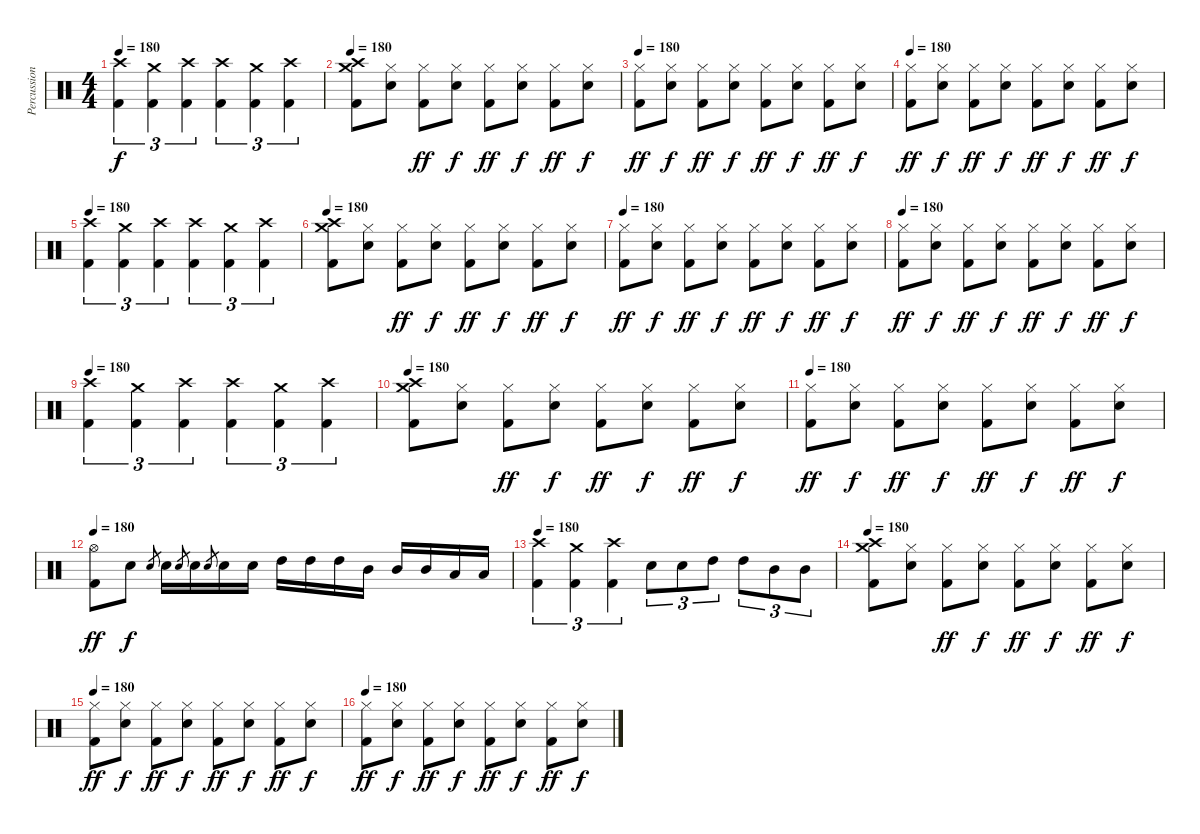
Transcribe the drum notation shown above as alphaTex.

\track ("Percussion" "Percussion") {instrument percussion}
\staff {score}
\articulation defaults
\ts (4 4)
\tempo 180
\clef neutral
\ks c
("Crash high (hit)" "Kick (hit) 2").4{tu (3 2) dy f} ("Crash medium (hit)" "Kick (hit) 2").4{tu (3 2)} ("Crash high (hit)" "Kick (hit) 2").4{tu (3 2)} ("Crash high (hit)" "Kick (hit) 2").4{tu (3 2)} ("Crash medium (hit)" "Kick (hit) 2").4{tu (3 2)} ("Crash high (hit)" "Kick (hit) 2").4{tu (3 2)} |
\tempo 180
("Crash high (hit)" "Crash medium (hit)" "Kick (hit) 2").8 ("Hi-Hat (closed)" "Snare (hit) 2").8 ("Hi-Hat (closed)" "Kick (hit) 2").8{dy ff} ("Hi-Hat (closed)" "Snare (hit) 2").8{dy f} ("Hi-Hat (closed)" "Kick (hit) 2").8{dy ff} ("Hi-Hat (closed)" "Snare (hit) 2").8{dy f} ("Hi-Hat (closed)" "Kick (hit) 2").8{dy ff} ("Hi-Hat (closed)" "Snare (hit) 2").8{dy f} |
\tempo 180
("Hi-Hat (closed)" "Kick (hit) 2").8{dy ff} ("Hi-Hat (closed)" "Snare (hit) 2").8{dy f} ("Hi-Hat (closed)" "Kick (hit) 2").8{dy ff} ("Hi-Hat (closed)" "Snare (hit) 2").8{dy f} ("Hi-Hat (closed)" "Kick (hit) 2").8{dy ff} ("Hi-Hat (closed)" "Snare (hit) 2").8{dy f} ("Hi-Hat (closed)" "Kick (hit) 2").8{dy ff} ("Hi-Hat (closed)" "Snare (hit) 2").8{dy f} |
\tempo 180
("Hi-Hat (closed)" "Kick (hit) 2").8{dy ff} ("Hi-Hat (closed)" "Snare (hit) 2").8{dy f} ("Hi-Hat (closed)" "Kick (hit) 2").8{dy ff} ("Hi-Hat (closed)" "Snare (hit) 2").8{dy f} ("Hi-Hat (closed)" "Kick (hit) 2").8{dy ff} ("Hi-Hat (closed)" "Snare (hit) 2").8{dy f} ("Hi-Hat (closed)" "Kick (hit) 2").8{dy ff} ("Hi-Hat (closed)" "Snare (hit) 2").8{dy f} |
\tempo 180
("Crash high (hit)" "Kick (hit) 2").4{tu (3 2)} ("Crash medium (hit)" "Kick (hit) 2").4{tu (3 2)} ("Crash high (hit)" "Kick (hit) 2").4{tu (3 2)} ("Crash high (hit)" "Kick (hit) 2").4{tu (3 2)} ("Crash medium (hit)" "Kick (hit) 2").4{tu (3 2)} ("Crash high (hit)" "Kick (hit) 2").4{tu (3 2)} |
\tempo 180
("Crash high (hit)" "Crash medium (hit)" "Kick (hit) 2").8 ("Hi-Hat (closed)" "Snare (hit) 2").8 ("Hi-Hat (closed)" "Kick (hit) 2").8{dy ff} ("Hi-Hat (closed)" "Snare (hit) 2").8{dy f} ("Hi-Hat (closed)" "Kick (hit) 2").8{dy ff} ("Hi-Hat (closed)" "Snare (hit) 2").8{dy f} ("Hi-Hat (closed)" "Kick (hit) 2").8{dy ff} ("Hi-Hat (closed)" "Snare (hit) 2").8{dy f} |
\tempo 180
("Hi-Hat (closed)" "Kick (hit) 2").8{dy ff} ("Hi-Hat (closed)" "Snare (hit) 2").8{dy f} ("Hi-Hat (closed)" "Kick (hit) 2").8{dy ff} ("Hi-Hat (closed)" "Snare (hit) 2").8{dy f} ("Hi-Hat (closed)" "Kick (hit) 2").8{dy ff} ("Hi-Hat (closed)" "Snare (hit) 2").8{dy f} ("Hi-Hat (closed)" "Kick (hit) 2").8{dy ff} ("Hi-Hat (closed)" "Snare (hit) 2").8{dy f} |
\tempo 180
("Hi-Hat (closed)" "Kick (hit) 2").8{dy ff} ("Hi-Hat (closed)" "Snare (hit) 2").8{dy f} ("Hi-Hat (closed)" "Kick (hit) 2").8{dy ff} ("Hi-Hat (closed)" "Snare (hit) 2").8{dy f} ("Hi-Hat (closed)" "Kick (hit) 2").8{dy ff} ("Hi-Hat (closed)" "Snare (hit) 2").8{dy f} ("Hi-Hat (closed)" "Kick (hit) 2").8{dy ff} ("Hi-Hat (closed)" "Snare (hit) 2").8{dy f} |
\tempo 180
("Crash high (hit)" "Kick (hit) 2").4{tu (3 2)} ("Crash medium (hit)" "Kick (hit) 2").4{tu (3 2)} ("Crash high (hit)" "Kick (hit) 2").4{tu (3 2)} ("Crash high (hit)" "Kick (hit) 2").4{tu (3 2)} ("Crash medium (hit)" "Kick (hit) 2").4{tu (3 2)} ("Crash high (hit)" "Kick (hit) 2").4{tu (3 2)} |
\tempo 180
("Crash high (hit)" "Crash medium (hit)" "Kick (hit) 2").8 ("Hi-Hat (closed)" "Snare (hit) 2").8 ("Hi-Hat (closed)" "Kick (hit) 2").8{dy ff} ("Hi-Hat (closed)" "Snare (hit) 2").8{dy f} ("Hi-Hat (closed)" "Kick (hit) 2").8{dy ff} ("Hi-Hat (closed)" "Snare (hit) 2").8{dy f} ("Hi-Hat (closed)" "Kick (hit) 2").8{dy ff} ("Hi-Hat (closed)" "Snare (hit) 2").8{dy f} |
\tempo 180
("Hi-Hat (closed)" "Kick (hit) 2").8{dy ff} ("Hi-Hat (closed)" "Snare (hit) 2").8{dy f} ("Hi-Hat (closed)" "Kick (hit) 2").8{dy ff} ("Hi-Hat (closed)" "Snare (hit) 2").8{dy f} ("Hi-Hat (closed)" "Kick (hit) 2").8{dy ff} ("Hi-Hat (closed)" "Snare (hit) 2").8{dy f} ("Hi-Hat (closed)" "Kick (hit) 2").8{dy ff} ("Hi-Hat (closed)" "Snare (hit) 2").8{dy f} |
\tempo 180
("Hi-Hat (open)" "Kick (hit) 2").8{dy ff} "Snare (hit) 2".8{dy f} "Snare (hit) 2".8{gr} "Snare (hit) 2".16 "Snare (hit) 2".8{gr} "Snare (hit) 2".16 "Snare (hit) 2".8{gr} "Snare (hit) 2".16 "Snare (hit) 2".16 "High Tom (hit)".16 "High Tom (hit)".16 "High Tom (hit)".16 "Mid Tom (hit)".16 "Mid Tom (hit)".16 "Mid Tom (hit)".16 "Low Floor Tom (hit)".16 "Low Floor Tom (hit)".16 |
\tempo 180
("Crash high (hit)" "Kick (hit) 2").4{tu (3 2)} ("Crash medium (hit)" "Kick (hit) 2").4{tu (3 2)} ("Crash high (hit)" "Kick (hit) 2").4{tu (3 2)} "Snare (hit) 2".8{tu (3 2)} "Snare (hit) 2".8{tu (3 2)} "High Tom (hit)".8{tu (3 2)} "High Tom (hit)".8{tu (3 2)} "Mid Tom (hit)".8{tu (3 2)} "Mid Tom (hit)".8{tu (3 2)} |
\tempo 180
("Crash high (hit)" "Crash medium (hit)" "Kick (hit) 2").8 ("Hi-Hat (closed)" "Snare (hit) 2").8 ("Hi-Hat (closed)" "Kick (hit) 2").8{dy ff} ("Hi-Hat (closed)" "Snare (hit) 2").8{dy f} ("Hi-Hat (closed)" "Kick (hit) 2").8{dy ff} ("Hi-Hat (closed)" "Snare (hit) 2").8{dy f} ("Hi-Hat (closed)" "Kick (hit) 2").8{dy ff} ("Hi-Hat (closed)" "Snare (hit) 2").8{dy f} |
\tempo 180
("Hi-Hat (closed)" "Kick (hit) 2").8{dy ff} ("Hi-Hat (closed)" "Snare (hit) 2").8{dy f} ("Hi-Hat (closed)" "Kick (hit) 2").8{dy ff} ("Hi-Hat (closed)" "Snare (hit) 2").8{dy f} ("Hi-Hat (closed)" "Kick (hit) 2").8{dy ff} ("Hi-Hat (closed)" "Snare (hit) 2").8{dy f} ("Hi-Hat (closed)" "Kick (hit) 2").8{dy ff} ("Hi-Hat (closed)" "Snare (hit) 2").8{dy f} |
\tempo 180
("Hi-Hat (closed)" "Kick (hit) 2").8{dy ff} ("Hi-Hat (closed)" "Snare (hit) 2").8{dy f} ("Hi-Hat (closed)" "Kick (hit) 2").8{dy ff} ("Hi-Hat (closed)" "Snare (hit) 2").8{dy f} ("Hi-Hat (closed)" "Kick (hit) 2").8{dy ff} ("Hi-Hat (closed)" "Snare (hit) 2").8{dy f} ("Hi-Hat (closed)" "Kick (hit) 2").8{dy ff} ("Hi-Hat (closed)" "Snare (hit) 2").8{dy f}
